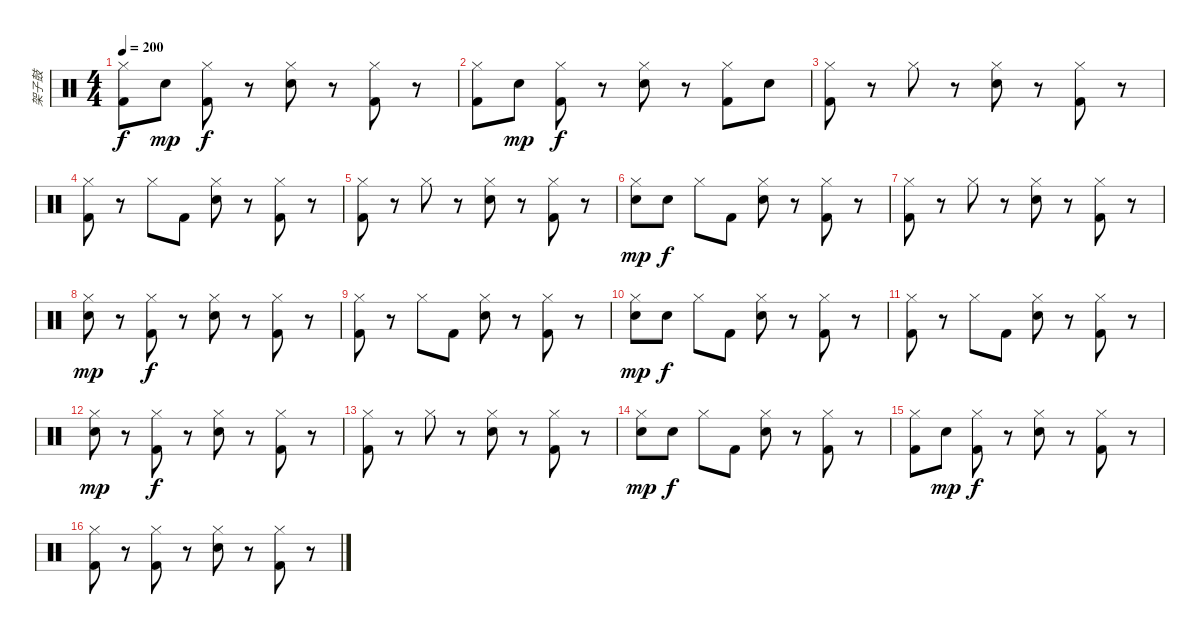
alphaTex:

\track ("架子鼓" "架子鼓") {instrument percussion}
\staff {score}
\articulation defaults
\ts (4 4)
\tempo 200
\clef neutral
\ks c
("Kick (hit) 2" "Hi-Hat (closed)").8{dy f} "Snare (hit) 2".8{dy mp} ("Kick (hit) 2" "Hi-Hat (closed)").8{dy f} r.8 ("Snare (hit) 2" "Hi-Hat (closed)").8 r.8 ("Hi-Hat (closed)" "Kick (hit) 2").8 r.8 |
("Kick (hit) 2" "Hi-Hat (closed)").8 "Snare (hit) 2".8{dy mp} ("Kick (hit) 2" "Hi-Hat (closed)").8{dy f} r.8 ("Snare (hit) 2" "Hi-Hat (closed)").8 r.8 ("Kick (hit) 2" "Hi-Hat (closed)").8 "Snare (hit) 2".8 |
("Kick (hit) 2" "Hi-Hat (closed)").8 r.8 "Hi-Hat (closed)".8 r.8 ("Snare (hit) 2" "Hi-Hat (closed)").8 r.8 ("Hi-Hat (closed)" "Kick (hit) 2").8 r.8 |
("Kick (hit) 2" "Hi-Hat (closed)").8 r.8 "Hi-Hat (closed)".8 "Kick (hit) 2".8 ("Snare (hit) 2" "Hi-Hat (closed)").8 r.8 ("Kick (hit) 2" "Hi-Hat (closed)").8 r.8 |
("Kick (hit) 2" "Hi-Hat (closed)").8 r.8 "Hi-Hat (closed)".8 r.8 ("Snare (hit) 2" "Hi-Hat (closed)").8 r.8 ("Hi-Hat (closed)" "Kick (hit) 2").8 r.8 |
("Snare (hit) 2" "Hi-Hat (closed)").8{dy mp} "Snare (hit) 2".8{dy f} "Hi-Hat (closed)".8 "Kick (hit) 2".8 ("Snare (hit) 2" "Hi-Hat (closed)").8 r.8 ("Kick (hit) 2" "Hi-Hat (closed)").8 r.8 |
("Kick (hit) 2" "Hi-Hat (closed)").8 r.8 "Hi-Hat (closed)".8 r.8 ("Snare (hit) 2" "Hi-Hat (closed)").8 r.8 ("Hi-Hat (closed)" "Kick (hit) 2").8 r.8 |
("Snare (hit) 2" "Hi-Hat (closed)").8{dy mp} r.8 ("Hi-Hat (closed)" "Kick (hit) 2").8{dy f} r.8 ("Snare (hit) 2" "Hi-Hat (closed)").8 r.8 ("Kick (hit) 2" "Hi-Hat (closed)").8 r.8 |
("Kick (hit) 2" "Hi-Hat (closed)").8 r.8 "Hi-Hat (closed)".8 "Kick (hit) 2".8 ("Snare (hit) 2" "Hi-Hat (closed)").8 r.8 ("Hi-Hat (closed)" "Kick (hit) 2").8 r.8 |
("Snare (hit) 2" "Hi-Hat (closed)").8{dy mp} "Snare (hit) 2".8{dy f} "Hi-Hat (closed)".8 "Kick (hit) 2".8 ("Snare (hit) 2" "Hi-Hat (closed)").8 r.8 ("Kick (hit) 2" "Hi-Hat (closed)").8 r.8 |
("Kick (hit) 2" "Hi-Hat (closed)").8 r.8 "Hi-Hat (closed)".8 "Kick (hit) 2".8 ("Snare (hit) 2" "Hi-Hat (closed)").8 r.8 ("Hi-Hat (closed)" "Kick (hit) 2").8 r.8 |
("Snare (hit) 2" "Hi-Hat (closed)").8{dy mp} r.8 ("Hi-Hat (closed)" "Kick (hit) 2").8{dy f} r.8 ("Snare (hit) 2" "Hi-Hat (closed)").8 r.8 ("Kick (hit) 2" "Hi-Hat (closed)").8 r.8 |
("Kick (hit) 2" "Hi-Hat (closed)").8 r.8 "Hi-Hat (closed)".8 r.8 ("Snare (hit) 2" "Hi-Hat (closed)").8 r.8 ("Hi-Hat (closed)" "Kick (hit) 2").8 r.8 |
("Snare (hit) 2" "Hi-Hat (closed)").8{dy mp} "Snare (hit) 2".8{dy f} "Hi-Hat (closed)".8 "Kick (hit) 2".8 ("Snare (hit) 2" "Hi-Hat (closed)").8 r.8 ("Kick (hit) 2" "Hi-Hat (closed)").8 r.8 |
("Kick (hit) 2" "Hi-Hat (closed)").8 "Snare (hit) 2".8{dy mp} ("Hi-Hat (closed)" "Kick (hit) 2").8{dy f} r.8 ("Snare (hit) 2" "Hi-Hat (closed)").8 r.8 ("Hi-Hat (closed)" "Kick (hit) 2").8 r.8 |
("Hi-Hat (closed)" "Kick (hit) 2").8 r.8 ("Hi-Hat (closed)" "Kick (hit) 2").8 r.8 ("Snare (hit) 2" "Hi-Hat (closed)").8 r.8 ("Kick (hit) 2" "Hi-Hat (closed)").8 r.8
